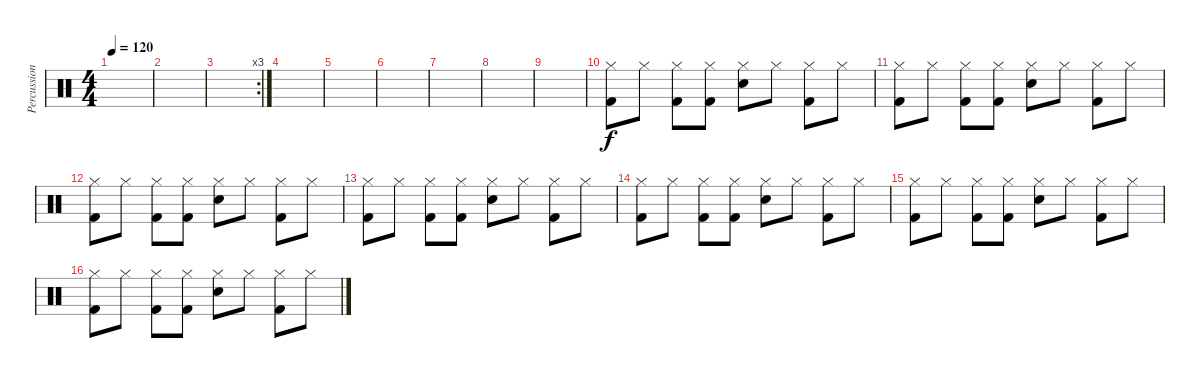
\track ("Percussions" "Percussion") {instrument percussion}
\staff {score}
\articulation defaults
\ts (4 4)
\tempo 120
\clef neutral
\ks c
|
|
\rc 3
|
|
|
|
|
|
|
("Hi-Hat (closed)" "Kick (hit) 2").8 "Hi-Hat (closed)".8 ("Hi-Hat (closed)" "Kick (hit) 2").8 ("Hi-Hat (closed)" "Kick (hit) 2").8 ("Hi-Hat (closed)" "Snare (hit) 2").8 "Hi-Hat (closed)".8 ("Hi-Hat (closed)" "Kick (hit) 2").8 "Hi-Hat (closed)".8 |
("Hi-Hat (closed)" "Kick (hit) 2").8 "Hi-Hat (closed)".8 ("Hi-Hat (closed)" "Kick (hit) 2").8 ("Hi-Hat (closed)" "Kick (hit) 2").8 ("Hi-Hat (closed)" "Snare (hit) 2").8 "Hi-Hat (closed)".8 ("Hi-Hat (closed)" "Kick (hit) 2").8 "Hi-Hat (closed)".8 |
("Hi-Hat (closed)" "Kick (hit) 2").8 "Hi-Hat (closed)".8 ("Hi-Hat (closed)" "Kick (hit) 2").8 ("Hi-Hat (closed)" "Kick (hit) 2").8 ("Hi-Hat (closed)" "Snare (hit) 2").8 "Hi-Hat (closed)".8 ("Hi-Hat (closed)" "Kick (hit) 2").8 "Hi-Hat (closed)".8 |
("Hi-Hat (closed)" "Kick (hit) 2").8 "Hi-Hat (closed)".8 ("Hi-Hat (closed)" "Kick (hit) 2").8 ("Hi-Hat (closed)" "Kick (hit) 2").8 ("Hi-Hat (closed)" "Snare (hit) 2").8 "Hi-Hat (closed)".8 ("Hi-Hat (closed)" "Kick (hit) 2").8 "Hi-Hat (closed)".8 |
("Hi-Hat (closed)" "Kick (hit) 2").8 "Hi-Hat (closed)".8 ("Hi-Hat (closed)" "Kick (hit) 2").8 ("Hi-Hat (closed)" "Kick (hit) 2").8 ("Hi-Hat (closed)" "Snare (hit) 2").8 "Hi-Hat (closed)".8 ("Hi-Hat (closed)" "Kick (hit) 2").8 "Hi-Hat (closed)".8 |
("Hi-Hat (closed)" "Kick (hit) 2").8 "Hi-Hat (closed)".8 ("Hi-Hat (closed)" "Kick (hit) 2").8 ("Hi-Hat (closed)" "Kick (hit) 2").8 ("Hi-Hat (closed)" "Snare (hit) 2").8 "Hi-Hat (closed)".8 ("Hi-Hat (closed)" "Kick (hit) 2").8 "Hi-Hat (closed)".8 |
("Hi-Hat (closed)" "Kick (hit) 2").8 "Hi-Hat (closed)".8 ("Hi-Hat (closed)" "Kick (hit) 2").8 ("Hi-Hat (closed)" "Kick (hit) 2").8 ("Hi-Hat (closed)" "Snare (hit) 2").8 "Hi-Hat (closed)".8 ("Hi-Hat (closed)" "Kick (hit) 2").8 "Hi-Hat (closed)".8
